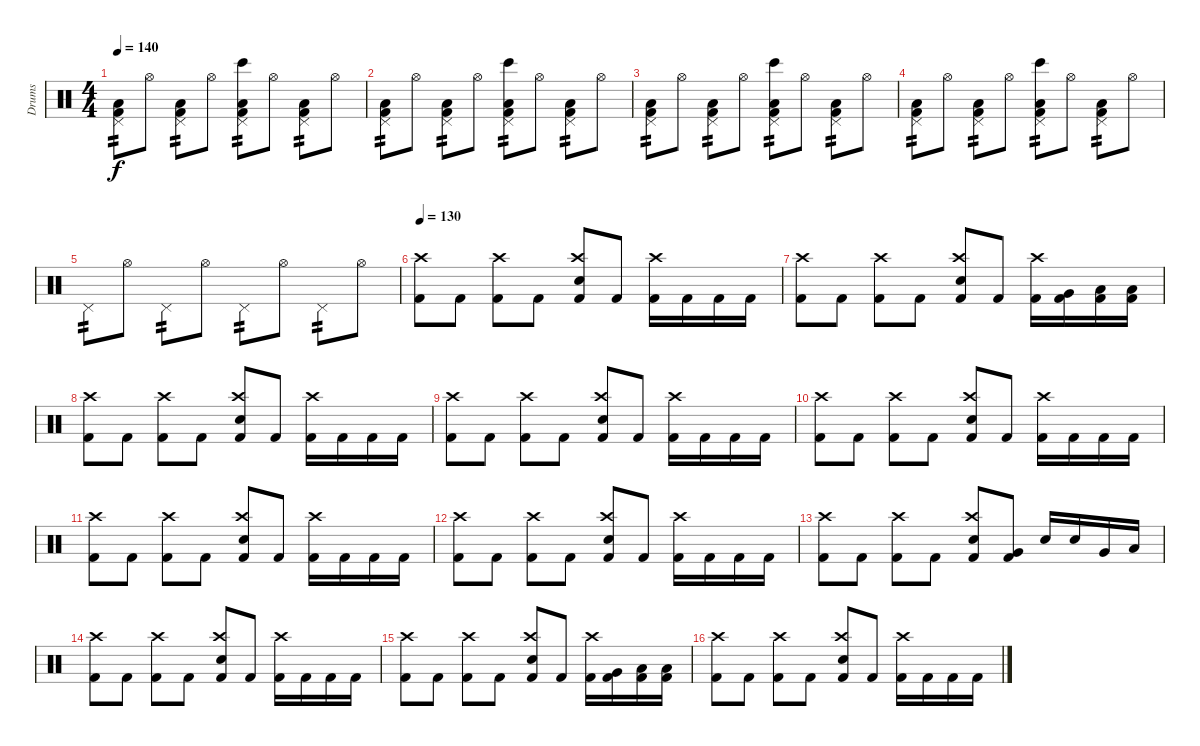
\track ("Drums" "Drums") {instrument percussion}
\staff {score}
\articulation defaults
\ts (4 4)
\tempo 140
\clef neutral
\ks c
("Pedal Hi-Hat (hit)" "Kick (hit) 2" "Low Floor Tom (hit)").8{tp 2 dy f volume 13} "Hi-Hat (open)".8 ("Pedal Hi-Hat (hit)" "Kick (hit) 2" "Low Floor Tom (hit)").8{tp 2} "Hi-Hat (open)".8 ("Pedal Hi-Hat (hit)" "Bongo High (hit)" "Kick (hit) 2" "Low Floor Tom (hit)").8{tp 2} "Hi-Hat (open)".8 ("Pedal Hi-Hat (hit)" "Kick (hit) 2" "Low Floor Tom (hit)").8{tp 2} "Hi-Hat (open)".8 |
("Pedal Hi-Hat (hit)" "Kick (hit) 2" "Low Floor Tom (hit)").8{tp 2} "Hi-Hat (open)".8 ("Pedal Hi-Hat (hit)" "Kick (hit) 2" "Low Floor Tom (hit)").8{tp 2} "Hi-Hat (open)".8 ("Pedal Hi-Hat (hit)" "Bongo High (hit)" "Kick (hit) 2" "Low Floor Tom (hit)").8{tp 2} "Hi-Hat (open)".8 ("Pedal Hi-Hat (hit)" "Kick (hit) 2" "Low Floor Tom (hit)").8{tp 2} "Hi-Hat (open)".8 |
("Pedal Hi-Hat (hit)" "Kick (hit) 2" "Low Floor Tom (hit)").8{tp 2} "Hi-Hat (open)".8 ("Pedal Hi-Hat (hit)" "Kick (hit) 2" "Low Floor Tom (hit)").8{tp 2} "Hi-Hat (open)".8 ("Pedal Hi-Hat (hit)" "Bongo High (hit)" "Kick (hit) 2" "Low Floor Tom (hit)").8{tp 2} "Hi-Hat (open)".8 ("Pedal Hi-Hat (hit)" "Kick (hit) 2" "Low Floor Tom (hit)").8{tp 2} "Hi-Hat (open)".8 |
("Pedal Hi-Hat (hit)" "Kick (hit) 2" "Low Floor Tom (hit)").8{tp 2} "Hi-Hat (open)".8 ("Pedal Hi-Hat (hit)" "Kick (hit) 2" "Low Floor Tom (hit)").8{tp 2} "Hi-Hat (open)".8 ("Pedal Hi-Hat (hit)" "Bongo High (hit)" "Kick (hit) 2" "Low Floor Tom (hit)").8{tp 2} "Hi-Hat (open)".8 ("Pedal Hi-Hat (hit)" "Kick (hit) 2" "Low Floor Tom (hit)").8{tp 2} "Hi-Hat (open)".8 |
"Pedal Hi-Hat (hit)".8{tp 2} "Hi-Hat (open)".8 "Pedal Hi-Hat (hit)".8{tp 2} "Hi-Hat (open)".8 "Pedal Hi-Hat (hit)".8{tp 2} "Hi-Hat (open)".8 "Pedal Hi-Hat (hit)".8{tp 2} "Hi-Hat (open)".8 |
\tempo 130
("Crash high (hit)" "Kick (hit) 2").8{volume 13} "Kick (hit) 2".8 ("Crash high (hit)" "Kick (hit) 2").8 "Kick (hit) 2".8 ("Crash high (hit)" "Electric Snare (hit)" "Kick (hit) 2").8 "Kick (hit) 2".8 ("Crash high (hit)" "Kick (hit) 2").16 "Kick (hit) 2".16 "Kick (hit) 2".16 "Kick (hit) 2".16 |
("Crash high (hit)" "Kick (hit) 2").8 "Kick (hit) 2".8 ("Crash high (hit)" "Kick (hit) 2").8 "Kick (hit) 2".8 ("Crash high (hit)" "Electric Snare (hit)" "Kick (hit) 2").8 "Kick (hit) 2".8 ("Crash high (hit)" "Kick (hit) 2").16 ("Very Low Tom (hit)" "Kick (hit) 2").16 ("Low Tom (hit)" "Kick (hit) 2").16 ("Low Tom (hit)" "Kick (hit) 2").16 |
("Crash high (hit)" "Kick (hit) 2").8 "Kick (hit) 2".8 ("Crash high (hit)" "Kick (hit) 2").8 "Kick (hit) 2".8 ("Crash high (hit)" "Electric Snare (hit)" "Kick (hit) 2").8 "Kick (hit) 2".8 ("Crash high (hit)" "Kick (hit) 2").16 "Kick (hit) 2".16 "Kick (hit) 2".16 "Kick (hit) 2".16 |
("Crash high (hit)" "Kick (hit) 2").8 "Kick (hit) 2".8 ("Crash high (hit)" "Kick (hit) 2").8 "Kick (hit) 2".8 ("Crash high (hit)" "Electric Snare (hit)" "Kick (hit) 2").8 "Kick (hit) 2".8 ("Crash high (hit)" "Kick (hit) 2").16 "Kick (hit) 2".16 "Kick (hit) 2".16 "Kick (hit) 2".16 |
("Crash high (hit)" "Kick (hit) 2").8 "Kick (hit) 2".8 ("Crash high (hit)" "Kick (hit) 2").8 "Kick (hit) 2".8 ("Crash high (hit)" "Electric Snare (hit)" "Kick (hit) 2").8 "Kick (hit) 2".8 ("Crash high (hit)" "Kick (hit) 2").16 "Kick (hit) 2".16 "Kick (hit) 2".16 "Kick (hit) 2".16 |
("Crash high (hit)" "Kick (hit) 2").8 "Kick (hit) 2".8 ("Crash high (hit)" "Kick (hit) 2").8 "Kick (hit) 2".8 ("Crash high (hit)" "Electric Snare (hit)" "Kick (hit) 2").8 "Kick (hit) 2".8 ("Crash high (hit)" "Kick (hit) 2").16 "Kick (hit) 2".16 "Kick (hit) 2".16 "Kick (hit) 2".16 |
("Crash high (hit)" "Kick (hit) 2").8 "Kick (hit) 2".8 ("Crash high (hit)" "Kick (hit) 2").8 "Kick (hit) 2".8 ("Crash high (hit)" "Electric Snare (hit)" "Kick (hit) 2").8 "Kick (hit) 2".8 ("Crash high (hit)" "Kick (hit) 2").16 "Kick (hit) 2".16 "Kick (hit) 2".16 "Kick (hit) 2".16 |
("Crash high (hit)" "Kick (hit) 2").8 "Kick (hit) 2".8 ("Crash high (hit)" "Kick (hit) 2").8 "Kick (hit) 2".8 ("Crash high (hit)" "Electric Snare (hit)" "Kick (hit) 2").8 ("Very Low Tom (hit)" "Kick (hit) 2").8 "Electric Snare (hit)".16 "Electric Snare (hit)".16 "Very Low Tom (hit)".16 "Low Tom (hit)".16 |
("Crash high (hit)" "Kick (hit) 2").8 "Kick (hit) 2".8 ("Crash high (hit)" "Kick (hit) 2").8 "Kick (hit) 2".8 ("Crash high (hit)" "Electric Snare (hit)" "Kick (hit) 2").8 "Kick (hit) 2".8 ("Crash high (hit)" "Kick (hit) 2").16 "Kick (hit) 2".16 "Kick (hit) 2".16 "Kick (hit) 2".16 |
("Crash high (hit)" "Kick (hit) 2").8 "Kick (hit) 2".8 ("Crash high (hit)" "Kick (hit) 2").8 "Kick (hit) 2".8 ("Crash high (hit)" "Electric Snare (hit)" "Kick (hit) 2").8 "Kick (hit) 2".8 ("Crash high (hit)" "Kick (hit) 2").16 ("Very Low Tom (hit)" "Kick (hit) 2").16 ("Low Tom (hit)" "Kick (hit) 2").16 ("Low Tom (hit)" "Kick (hit) 2").16 |
("Crash high (hit)" "Kick (hit) 2").8 "Kick (hit) 2".8 ("Crash high (hit)" "Kick (hit) 2").8 "Kick (hit) 2".8 ("Crash high (hit)" "Electric Snare (hit)" "Kick (hit) 2").8 "Kick (hit) 2".8 ("Crash high (hit)" "Kick (hit) 2").16 "Kick (hit) 2".16 "Kick (hit) 2".16 "Kick (hit) 2".16
